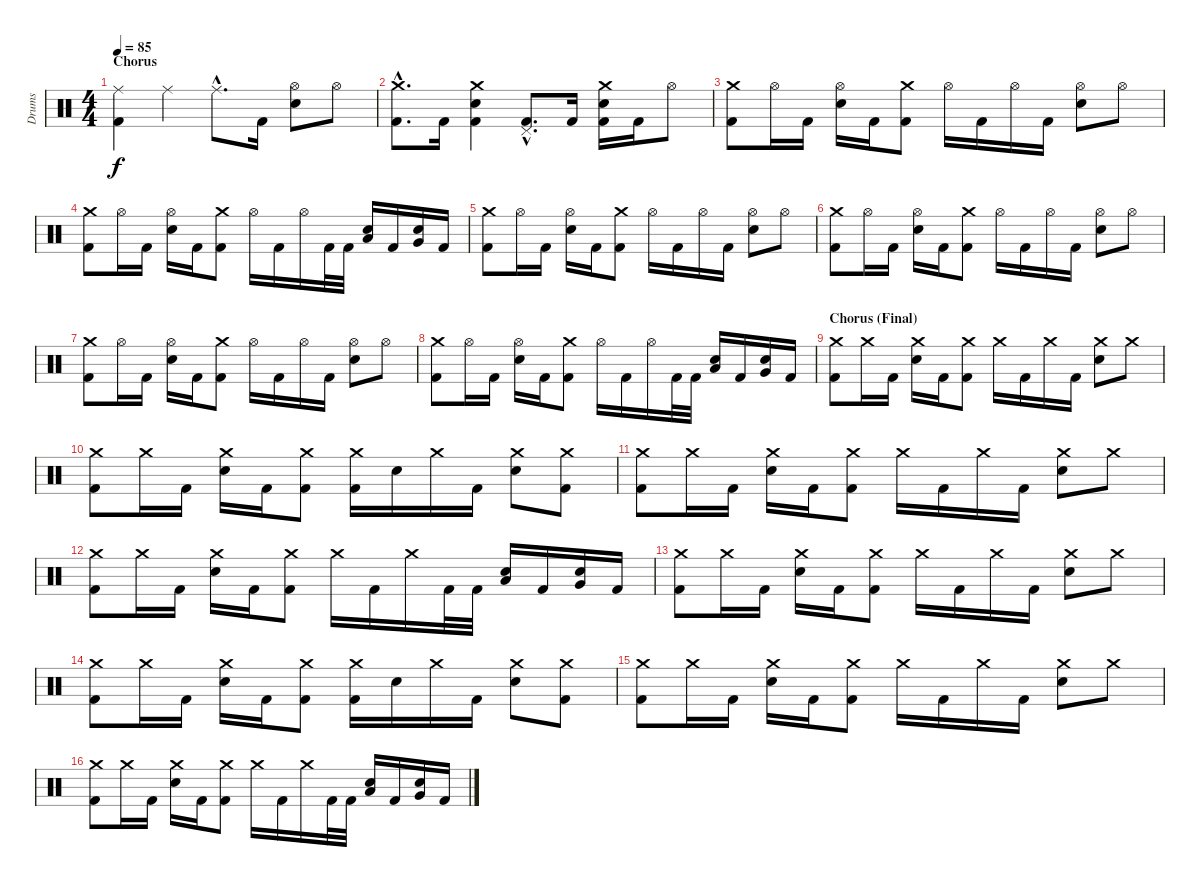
\track ("Drums" "Drums") {instrument percussion}
\staff {score}
\articulation defaults
\ts (4 4)
\section ("" "Chorus")
\tempo 85
\clef neutral
\ks c
("Ride (middle)" "Kick (hit) 2").4{dy f} "Ride (middle)".4 "Ride (middle)"{hac}.8{d} "Kick (hit) 2".16 ("Hi-Hat (open)" "Electric Snare (hit)").8 "Hi-Hat (open)".8 |
("Crash medium (hit)"{hac} "Kick (hit) 2"{hac}).8{d} "Kick (hit) 2".16 ("Crash medium (hit)" "Electric Snare (hit)" "Kick (hit) 2").4 ("Pedal Hi-Hat (hit)"{hac} "Kick (hit) 2"{hac}).8{d} "Kick (hit) 2".16 ("Crash medium (hit)" "Electric Snare (hit)" "Kick (hit) 2").16 "Kick (hit) 2".16 "Hi-Hat (open)".8 |
("Crash medium (hit)" "Kick (hit) 2").8 "Hi-Hat (open)".16 "Kick (hit) 2".16 ("Hi-Hat (open)" "Electric Snare (hit)").16 "Kick (hit) 2".16 ("Crash medium (hit)" "Kick (hit) 2").8 "Hi-Hat (open)".16 "Kick (hit) 2".16 "Hi-Hat (open)".16 "Kick (hit) 2".16 ("Hi-Hat (open)" "Electric Snare (hit)").8 "Hi-Hat (open)".8 |
("Crash medium (hit)" "Kick (hit) 2").8 "Hi-Hat (open)".16 "Kick (hit) 2".16 ("Hi-Hat (open)" "Electric Snare (hit)").16 "Kick (hit) 2".16 ("Crash medium (hit)" "Kick (hit) 2").8 "Hi-Hat (open)".16 "Kick (hit) 2".16 "Hi-Hat (open)".16 "Kick (hit) 2".32 "Kick (hit) 2".32 ("Electric Snare (hit)" "Low Tom (hit)").16 "Kick (hit) 2".16 ("Electric Snare (hit)" "Very Low Tom (hit)").16 "Kick (hit) 2".16 |
("Crash medium (hit)" "Kick (hit) 2").8 "Hi-Hat (open)".16 "Kick (hit) 2".16 ("Hi-Hat (open)" "Electric Snare (hit)").16 "Kick (hit) 2".16 ("Crash medium (hit)" "Kick (hit) 2").8 "Hi-Hat (open)".16 "Kick (hit) 2".16 "Hi-Hat (open)".16 "Kick (hit) 2".16 ("Hi-Hat (open)" "Electric Snare (hit)").8 "Hi-Hat (open)".8 |
("Crash medium (hit)" "Kick (hit) 2").8 "Hi-Hat (open)".16 "Kick (hit) 2".16 ("Hi-Hat (open)" "Electric Snare (hit)").16 "Kick (hit) 2".16 ("Crash medium (hit)" "Kick (hit) 2").8 "Hi-Hat (open)".16 "Kick (hit) 2".16 "Hi-Hat (open)".16 "Kick (hit) 2".16 ("Hi-Hat (open)" "Electric Snare (hit)").8 "Hi-Hat (open)".8 |
("Crash medium (hit)" "Kick (hit) 2").8 "Hi-Hat (open)".16 "Kick (hit) 2".16 ("Hi-Hat (open)" "Electric Snare (hit)").16 "Kick (hit) 2".16 ("Crash medium (hit)" "Kick (hit) 2").8 "Hi-Hat (open)".16 "Kick (hit) 2".16 "Hi-Hat (open)".16 "Kick (hit) 2".16 ("Hi-Hat (open)" "Electric Snare (hit)").8 "Hi-Hat (open)".8 |
("Crash medium (hit)" "Kick (hit) 2").8 "Hi-Hat (open)".16 "Kick (hit) 2".16 ("Hi-Hat (open)" "Electric Snare (hit)").16 "Kick (hit) 2".16 ("Crash medium (hit)" "Kick (hit) 2").8 "Hi-Hat (open)".16 "Kick (hit) 2".16 "Hi-Hat (open)".16 "Kick (hit) 2".32 "Kick (hit) 2".32 ("Electric Snare (hit)" "Low Tom (hit)").16 "Kick (hit) 2".16 ("Electric Snare (hit)" "Very Low Tom (hit)").16 "Kick (hit) 2".16 |
\section ("" "Chorus (Final)")
("Crash medium (hit)" "Kick (hit) 2").8 "Crash medium (hit)".16 "Kick (hit) 2".16 ("Crash medium (hit)" "Electric Snare (hit)").16 "Kick (hit) 2".16 ("Crash medium (hit)" "Kick (hit) 2").8 "Crash medium (hit)".16 "Kick (hit) 2".16 "Crash medium (hit)".16 "Kick (hit) 2".16 ("Crash medium (hit)" "Electric Snare (hit)").8 "Crash medium (hit)".8 |
("Crash medium (hit)" "Kick (hit) 2").8 "Crash medium (hit)".16 "Kick (hit) 2".16 ("Crash medium (hit)" "Electric Snare (hit)").16 "Kick (hit) 2".16 ("Crash medium (hit)" "Kick (hit) 2").8 ("Crash medium (hit)" "Kick (hit) 2").16 "Electric Snare (hit)".16 "Crash medium (hit)".16 "Kick (hit) 2".16 ("Crash medium (hit)" "Electric Snare (hit)").8 ("Crash medium (hit)" "Kick (hit) 2").8 |
("Crash medium (hit)" "Kick (hit) 2").8 "Crash medium (hit)".16 "Kick (hit) 2".16 ("Crash medium (hit)" "Electric Snare (hit)").16 "Kick (hit) 2".16 ("Crash medium (hit)" "Kick (hit) 2").8 "Crash medium (hit)".16 "Kick (hit) 2".16 "Crash medium (hit)".16 "Kick (hit) 2".16 ("Crash medium (hit)" "Electric Snare (hit)").8 "Crash medium (hit)".8 |
("Crash medium (hit)" "Kick (hit) 2").8 "Crash medium (hit)".16 "Kick (hit) 2".16 ("Crash medium (hit)" "Electric Snare (hit)").16 "Kick (hit) 2".16 ("Crash medium (hit)" "Kick (hit) 2").8 "Crash medium (hit)".16 "Kick (hit) 2".16 "Crash medium (hit)".16 "Kick (hit) 2".32 "Kick (hit) 2".32 ("Electric Snare (hit)" "Low Tom (hit)").16 "Kick (hit) 2".16 ("Electric Snare (hit)" "Very Low Tom (hit)").16 "Kick (hit) 2".16 |
("Crash medium (hit)" "Kick (hit) 2").8 "Crash medium (hit)".16 "Kick (hit) 2".16 ("Crash medium (hit)" "Electric Snare (hit)").16 "Kick (hit) 2".16 ("Crash medium (hit)" "Kick (hit) 2").8 "Crash medium (hit)".16 "Kick (hit) 2".16 "Crash medium (hit)".16 "Kick (hit) 2".16 ("Crash medium (hit)" "Electric Snare (hit)").8 "Crash medium (hit)".8 |
("Crash medium (hit)" "Kick (hit) 2").8 "Crash medium (hit)".16 "Kick (hit) 2".16 ("Crash medium (hit)" "Electric Snare (hit)").16 "Kick (hit) 2".16 ("Crash medium (hit)" "Kick (hit) 2").8 ("Crash medium (hit)" "Kick (hit) 2").16 "Electric Snare (hit)".16 "Crash medium (hit)".16 "Kick (hit) 2".16 ("Crash medium (hit)" "Electric Snare (hit)").8 ("Crash medium (hit)" "Kick (hit) 2").8 |
("Crash medium (hit)" "Kick (hit) 2").8 "Crash medium (hit)".16 "Kick (hit) 2".16 ("Crash medium (hit)" "Electric Snare (hit)").16 "Kick (hit) 2".16 ("Crash medium (hit)" "Kick (hit) 2").8 "Crash medium (hit)".16 "Kick (hit) 2".16 "Crash medium (hit)".16 "Kick (hit) 2".16 ("Crash medium (hit)" "Electric Snare (hit)").8 "Crash medium (hit)".8 |
("Crash medium (hit)" "Kick (hit) 2").8 "Crash medium (hit)".16 "Kick (hit) 2".16 ("Crash medium (hit)" "Electric Snare (hit)").16 "Kick (hit) 2".16 ("Crash medium (hit)" "Kick (hit) 2").8 "Crash medium (hit)".16 "Kick (hit) 2".16 "Crash medium (hit)".16 "Kick (hit) 2".32 "Kick (hit) 2".32 ("Electric Snare (hit)" "Low Tom (hit)").16 "Kick (hit) 2".16 ("Electric Snare (hit)" "Very Low Tom (hit)").16 "Kick (hit) 2".16
